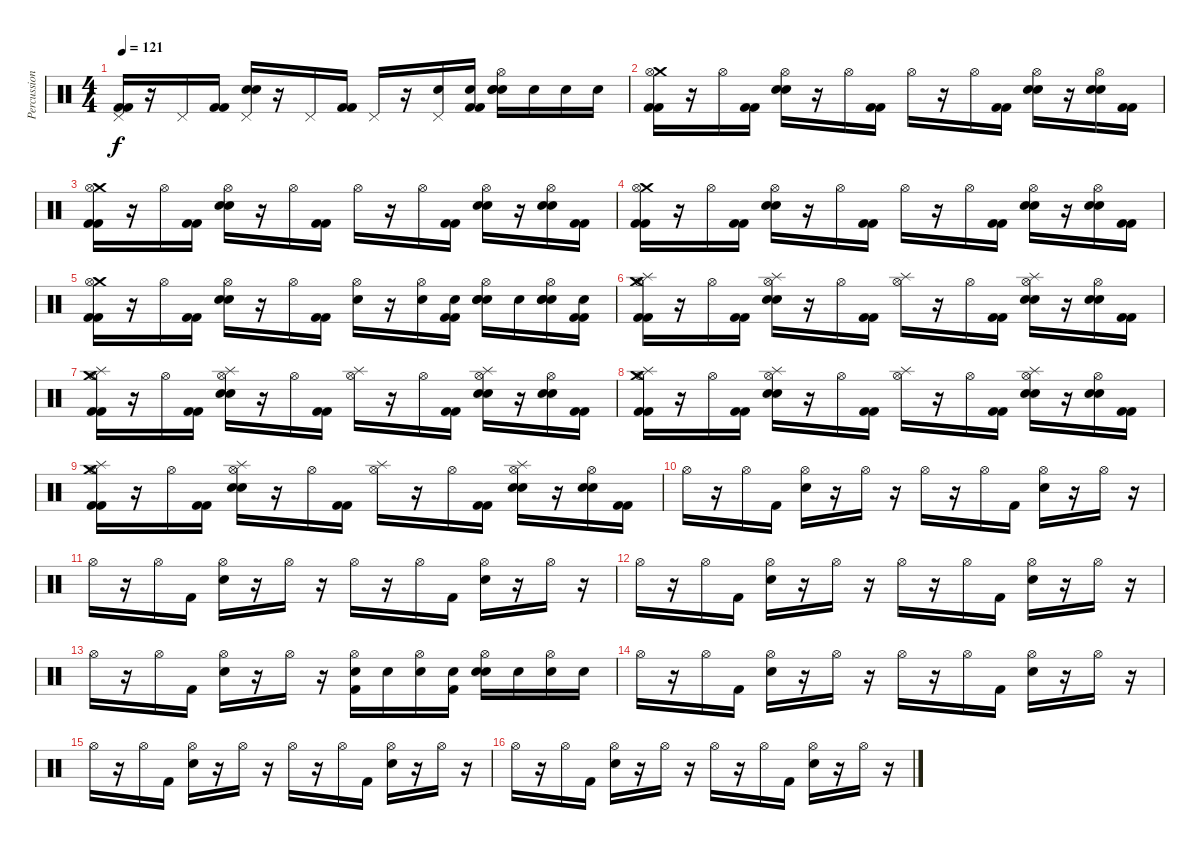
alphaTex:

\track ("Percussion- Mike" "Percussion") {instrument percussion}
\staff {score}
\articulation defaults
\ts (4 4)
\tempo 121
\clef neutral
\ks c
("Kick (hit) 2" "Kick (hit) 2" "Pedal Hi-Hat (hit)").16{dy f} r.16 "Pedal Hi-Hat (hit)".16 ("Kick (hit) 2" "Kick (hit) 2").16 ("Snare (hit) 2" "Snare (hit) 2" "Pedal Hi-Hat (hit)").16 r.16 "Pedal Hi-Hat (hit)".16 ("Kick (hit) 2" "Kick (hit) 2").16 "Pedal Hi-Hat (hit)".16 r.16 ("Electric Snare (hit)" "Pedal Hi-Hat (hit)").16 ("Electric Snare (hit)" "Kick (hit) 2" "Kick (hit) 2").16 ("Electric Snare (hit)" "Hi-Hat (open)" "Snare (hit) 2" "Snare (hit) 2").16 "Electric Snare (hit)".16 "Electric Snare (hit)".16 "Electric Snare (hit)".16 |
("Crash medium (hit)" "Kick (hit) 2" "Kick (hit) 2" "Hi-Hat (open)").16 r.16 "Hi-Hat (open)".16 ("Kick (hit) 2" "Kick (hit) 2").16 ("Snare (hit) 2" "Snare (hit) 2" "Hi-Hat (open)").16 r.16 "Hi-Hat (open)".16 ("Kick (hit) 2" "Kick (hit) 2").16 "Hi-Hat (open)".16 r.16 "Hi-Hat (open)".16 ("Kick (hit) 2" "Kick (hit) 2").16 ("Snare (hit) 2" "Snare (hit) 2" "Hi-Hat (open)").16 r.16 ("Electric Snare (hit)" "Electric Snare (hit)" "Hi-Hat (open)").16 ("Kick (hit) 2" "Kick (hit) 2").16 |
("Crash medium (hit)" "Kick (hit) 2" "Kick (hit) 2" "Hi-Hat (open)").16 r.16 "Hi-Hat (open)".16 ("Kick (hit) 2" "Kick (hit) 2").16 ("Snare (hit) 2" "Snare (hit) 2" "Hi-Hat (open)").16 r.16 "Hi-Hat (open)".16 ("Kick (hit) 2" "Kick (hit) 2").16 "Hi-Hat (open)".16 r.16 "Hi-Hat (open)".16 ("Kick (hit) 2" "Kick (hit) 2").16 ("Snare (hit) 2" "Snare (hit) 2" "Hi-Hat (open)").16 r.16 ("Electric Snare (hit)" "Electric Snare (hit)" "Hi-Hat (open)").16 ("Kick (hit) 2" "Kick (hit) 2").16 |
("Crash medium (hit)" "Kick (hit) 2" "Kick (hit) 2" "Hi-Hat (open)").16 r.16 "Hi-Hat (open)".16 ("Kick (hit) 2" "Kick (hit) 2").16 ("Snare (hit) 2" "Snare (hit) 2" "Hi-Hat (open)").16 r.16 "Hi-Hat (open)".16 ("Kick (hit) 2" "Kick (hit) 2").16 "Hi-Hat (open)".16 r.16 "Hi-Hat (open)".16 ("Kick (hit) 2" "Kick (hit) 2").16 ("Snare (hit) 2" "Snare (hit) 2" "Hi-Hat (open)").16 r.16 ("Electric Snare (hit)" "Electric Snare (hit)" "Hi-Hat (open)").16 ("Kick (hit) 2" "Kick (hit) 2").16 |
("Crash medium (hit)" "Kick (hit) 2" "Kick (hit) 2" "Hi-Hat (open)").16 r.16 "Hi-Hat (open)".16 ("Kick (hit) 2" "Kick (hit) 2").16 ("Snare (hit) 2" "Snare (hit) 2" "Hi-Hat (open)").16 r.16 "Hi-Hat (open)".16 ("Kick (hit) 2" "Kick (hit) 2").16 ("Electric Snare (hit)" "Hi-Hat (open)").16 r.16 ("Electric Snare (hit)" "Hi-Hat (open)").16 ("Electric Snare (hit)" "Kick (hit) 2" "Kick (hit) 2").16 ("Electric Snare (hit)" "Snare (hit) 2" "Snare (hit) 2" "Hi-Hat (open)").16 "Electric Snare (hit)".16 ("Electric Snare (hit)" "Electric Snare (hit)" "Electric Snare (hit)" "Hi-Hat (open)").16 ("Electric Snare (hit)" "Kick (hit) 2" "Kick (hit) 2").16 |
("Splash (hit)" "Crash medium (hit)" "Kick (hit) 2" "Kick (hit) 2" "Hi-Hat (open)").16 r.16 "Hi-Hat (open)".16 ("Kick (hit) 2" "Kick (hit) 2").16 ("Splash (hit)" "Snare (hit) 2" "Snare (hit) 2" "Hi-Hat (open)").16 r.16 "Hi-Hat (open)".16 ("Kick (hit) 2" "Kick (hit) 2").16 ("Splash (hit)" "Hi-Hat (open)").16 r.16 "Hi-Hat (open)".16 ("Kick (hit) 2" "Kick (hit) 2").16 ("Splash (hit)" "Snare (hit) 2" "Snare (hit) 2" "Hi-Hat (open)").16 r.16 ("Electric Snare (hit)" "Electric Snare (hit)" "Hi-Hat (open)").16 ("Kick (hit) 2" "Kick (hit) 2").16 |
("Splash (hit)" "Crash medium (hit)" "Kick (hit) 2" "Kick (hit) 2" "Hi-Hat (open)").16 r.16 "Hi-Hat (open)".16 ("Kick (hit) 2" "Kick (hit) 2").16 ("Splash (hit)" "Snare (hit) 2" "Snare (hit) 2" "Hi-Hat (open)").16 r.16 "Hi-Hat (open)".16 ("Kick (hit) 2" "Kick (hit) 2").16 ("Splash (hit)" "Hi-Hat (open)").16 r.16 "Hi-Hat (open)".16 ("Kick (hit) 2" "Kick (hit) 2").16 ("Splash (hit)" "Snare (hit) 2" "Snare (hit) 2" "Hi-Hat (open)").16 r.16 ("Electric Snare (hit)" "Electric Snare (hit)" "Hi-Hat (open)").16 ("Kick (hit) 2" "Kick (hit) 2").16 |
("Splash (hit)" "Crash medium (hit)" "Kick (hit) 2" "Kick (hit) 2" "Hi-Hat (open)").16 r.16 "Hi-Hat (open)".16 ("Kick (hit) 2" "Kick (hit) 2").16 ("Splash (hit)" "Snare (hit) 2" "Snare (hit) 2" "Hi-Hat (open)").16 r.16 "Hi-Hat (open)".16 ("Kick (hit) 2" "Kick (hit) 2").16 ("Splash (hit)" "Hi-Hat (open)").16 r.16 "Hi-Hat (open)".16 ("Kick (hit) 2" "Kick (hit) 2").16 ("Splash (hit)" "Snare (hit) 2" "Snare (hit) 2" "Hi-Hat (open)").16 r.16 ("Electric Snare (hit)" "Electric Snare (hit)" "Hi-Hat (open)").16 ("Kick (hit) 2" "Kick (hit) 2").16 |
("Splash (hit)" "Crash medium (hit)" "Kick (hit) 2" "Kick (hit) 2" "Hi-Hat (open)").16 r.16 "Hi-Hat (open)".16 ("Kick (hit) 2" "Kick (hit) 2").16 ("Splash (hit)" "Snare (hit) 2" "Snare (hit) 2" "Hi-Hat (open)").16 r.16 "Hi-Hat (open)".16 ("Kick (hit) 2" "Kick (hit) 2").16 ("Splash (hit)" "Hi-Hat (open)").16 r.16 "Hi-Hat (open)".16 ("Kick (hit) 2" "Kick (hit) 2").16 ("Splash (hit)" "Snare (hit) 2" "Snare (hit) 2" "Hi-Hat (open)").16 r.16 ("Electric Snare (hit)" "Electric Snare (hit)" "Hi-Hat (open)").16 ("Kick (hit) 2" "Kick (hit) 2").16 |
"Hi-Hat (open)".16 r.16 "Hi-Hat (open)".16 "Kick (hit) 2".16 ("Electric Snare (hit)" "Hi-Hat (open)").16 r.16 "Hi-Hat (open)".16 r.16 "Hi-Hat (open)".16 r.16 "Hi-Hat (open)".16 "Kick (hit) 2".16 ("Electric Snare (hit)" "Hi-Hat (open)").16 r.16 "Hi-Hat (open)".16 r.16 |
"Hi-Hat (open)".16 r.16 "Hi-Hat (open)".16 "Kick (hit) 2".16 ("Electric Snare (hit)" "Hi-Hat (open)").16 r.16 "Hi-Hat (open)".16 r.16 "Hi-Hat (open)".16 r.16 "Hi-Hat (open)".16 "Kick (hit) 2".16 ("Electric Snare (hit)" "Hi-Hat (open)").16 r.16 "Hi-Hat (open)".16 r.16 |
"Hi-Hat (open)".16 r.16 "Hi-Hat (open)".16 "Kick (hit) 2".16 ("Electric Snare (hit)" "Hi-Hat (open)").16 r.16 "Hi-Hat (open)".16 r.16 "Hi-Hat (open)".16 r.16 "Hi-Hat (open)".16 "Kick (hit) 2".16 ("Electric Snare (hit)" "Hi-Hat (open)").16 r.16 "Hi-Hat (open)".16 r.16 |
"Hi-Hat (open)".16 r.16 "Hi-Hat (open)".16 "Kick (hit) 2".16 ("Electric Snare (hit)" "Hi-Hat (open)").16 r.16 "Hi-Hat (open)".16 r.16 ("Electric Snare (hit)" "Kick (hit) 2" "Hi-Hat (open)").16 "Electric Snare (hit)".16 ("Electric Snare (hit)" "Hi-Hat (open)").16 ("Electric Snare (hit)" "Kick (hit) 2").16 ("Electric Snare (hit)" "Electric Snare (hit)" "Hi-Hat (open)").16 "Electric Snare (hit)".16 ("Electric Snare (hit)" "Hi-Hat (open)").16 "Electric Snare (hit)".16 |
"Hi-Hat (open)".16 r.16 "Hi-Hat (open)".16 "Kick (hit) 2".16 ("Electric Snare (hit)" "Hi-Hat (open)").16 r.16 "Hi-Hat (open)".16 r.16 "Hi-Hat (open)".16 r.16 "Hi-Hat (open)".16 "Kick (hit) 2".16 ("Electric Snare (hit)" "Hi-Hat (open)").16 r.16 "Hi-Hat (open)".16 r.16 |
"Hi-Hat (open)".16 r.16 "Hi-Hat (open)".16 "Kick (hit) 2".16 ("Electric Snare (hit)" "Hi-Hat (open)").16 r.16 "Hi-Hat (open)".16 r.16 "Hi-Hat (open)".16 r.16 "Hi-Hat (open)".16 "Kick (hit) 2".16 ("Electric Snare (hit)" "Hi-Hat (open)").16 r.16 "Hi-Hat (open)".16 r.16 |
"Hi-Hat (open)".16 r.16 "Hi-Hat (open)".16 "Kick (hit) 2".16 ("Electric Snare (hit)" "Hi-Hat (open)").16 r.16 "Hi-Hat (open)".16 r.16 "Hi-Hat (open)".16 r.16 "Hi-Hat (open)".16 "Kick (hit) 2".16 ("Electric Snare (hit)" "Hi-Hat (open)").16 r.16 "Hi-Hat (open)".16 r.16
